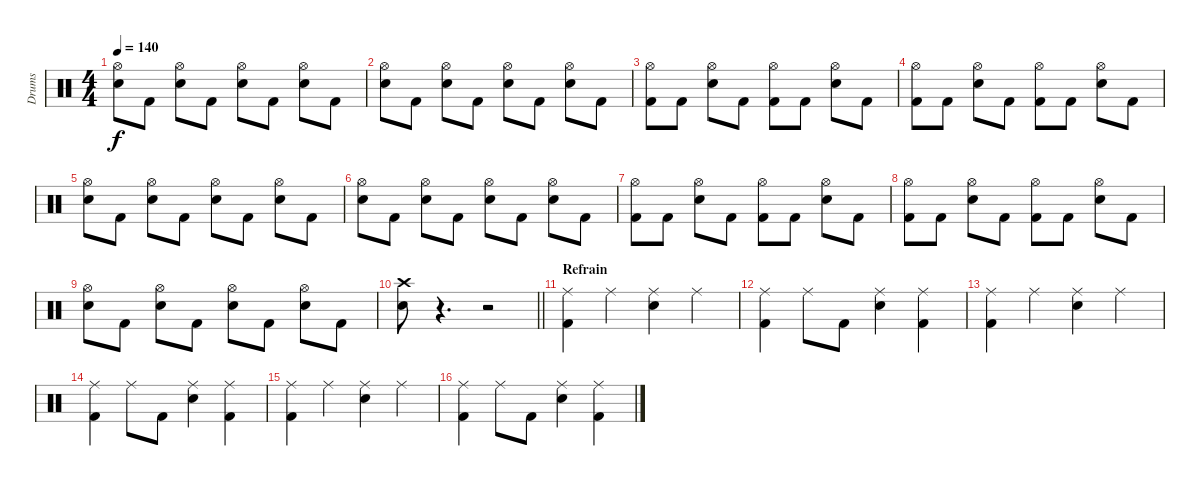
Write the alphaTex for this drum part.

\track ("Drums" "Drums") {instrument percussion}
\staff {score}
\articulation defaults
\ts (4 4)
\tempo 140
\clef neutral
\ks c
("Snare (hit) 2" "Hi-Hat (open)").8{dy f} "Kick (hit) 2".8 ("Snare (hit) 2" "Hi-Hat (open)").8 "Kick (hit) 2".8 ("Snare (hit) 2" "Hi-Hat (open)").8 "Kick (hit) 2".8 ("Snare (hit) 2" "Hi-Hat (open)").8 "Kick (hit) 2".8 |
("Snare (hit) 2" "Hi-Hat (open)").8 "Kick (hit) 2".8 ("Snare (hit) 2" "Hi-Hat (open)").8 "Kick (hit) 2".8 ("Snare (hit) 2" "Hi-Hat (open)").8 "Kick (hit) 2".8 ("Snare (hit) 2" "Hi-Hat (open)").8 "Kick (hit) 2".8 |
("Kick (hit) 2" "Hi-Hat (open)").8 "Kick (hit) 2".8 ("Snare (hit) 2" "Hi-Hat (open)").8 "Kick (hit) 2".8 ("Kick (hit) 2" "Hi-Hat (open)").8 "Kick (hit) 2".8 ("Snare (hit) 2" "Hi-Hat (open)").8 "Kick (hit) 2".8 |
("Kick (hit) 2" "Hi-Hat (open)").8 "Kick (hit) 2".8 ("Snare (hit) 2" "Hi-Hat (open)").8 "Kick (hit) 2".8 ("Kick (hit) 2" "Hi-Hat (open)").8 "Kick (hit) 2".8 ("Snare (hit) 2" "Hi-Hat (open)").8 "Kick (hit) 2".8 |
("Snare (hit) 2" "Hi-Hat (open)").8 "Kick (hit) 2".8 ("Snare (hit) 2" "Hi-Hat (open)").8 "Kick (hit) 2".8 ("Snare (hit) 2" "Hi-Hat (open)").8 "Kick (hit) 2".8 ("Snare (hit) 2" "Hi-Hat (open)").8 "Kick (hit) 2".8 |
("Snare (hit) 2" "Hi-Hat (open)").8 "Kick (hit) 2".8 ("Snare (hit) 2" "Hi-Hat (open)").8 "Kick (hit) 2".8 ("Snare (hit) 2" "Hi-Hat (open)").8 "Kick (hit) 2".8 ("Snare (hit) 2" "Hi-Hat (open)").8 "Kick (hit) 2".8 |
("Kick (hit) 2" "Hi-Hat (open)").8 "Kick (hit) 2".8 ("Snare (hit) 2" "Hi-Hat (open)").8 "Kick (hit) 2".8 ("Kick (hit) 2" "Hi-Hat (open)").8 "Kick (hit) 2".8 ("Snare (hit) 2" "Hi-Hat (open)").8 "Kick (hit) 2".8 |
("Kick (hit) 2" "Hi-Hat (open)").8 "Kick (hit) 2".8 ("Snare (hit) 2" "Hi-Hat (open)").8 "Kick (hit) 2".8 ("Kick (hit) 2" "Hi-Hat (open)").8 "Kick (hit) 2".8 ("Snare (hit) 2" "Hi-Hat (open)").8 "Kick (hit) 2".8 |
("Snare (hit) 2" "Hi-Hat (open)").8 "Kick (hit) 2".8 ("Snare (hit) 2" "Hi-Hat (open)").8 "Kick (hit) 2".8 ("Snare (hit) 2" "Hi-Hat (open)").8 "Kick (hit) 2".8 ("Snare (hit) 2" "Hi-Hat (open)").8 "Kick (hit) 2".8 |
\barLineRight lightlight
("Snare (hit) 2" "Crash high (hit)").8 r.4{d} r.2 |
\section ("" "Refrain")
("Ride (middle)" "Kick (hit) 2").4 "Ride (middle)".4 ("Snare (hit) 2" "Ride (middle)").4 "Ride (middle)".4 |
("Kick (hit) 2" "Ride (middle)").4 "Ride (middle)".8 "Kick (hit) 2".8 ("Ride (middle)" "Snare (hit) 2").4 ("Ride (middle)" "Kick (hit) 2").4 |
("Ride (middle)" "Kick (hit) 2").4 "Ride (middle)".4 ("Snare (hit) 2" "Ride (middle)").4 "Ride (middle)".4 |
("Kick (hit) 2" "Ride (middle)").4 "Ride (middle)".8 "Kick (hit) 2".8 ("Ride (middle)" "Snare (hit) 2").4 ("Ride (middle)" "Kick (hit) 2").4 |
("Ride (middle)" "Kick (hit) 2").4 "Ride (middle)".4 ("Snare (hit) 2" "Ride (middle)").4 "Ride (middle)".4 |
("Kick (hit) 2" "Ride (middle)").4 "Ride (middle)".8 "Kick (hit) 2".8 ("Ride (middle)" "Snare (hit) 2").4 ("Ride (middle)" "Kick (hit) 2").4
